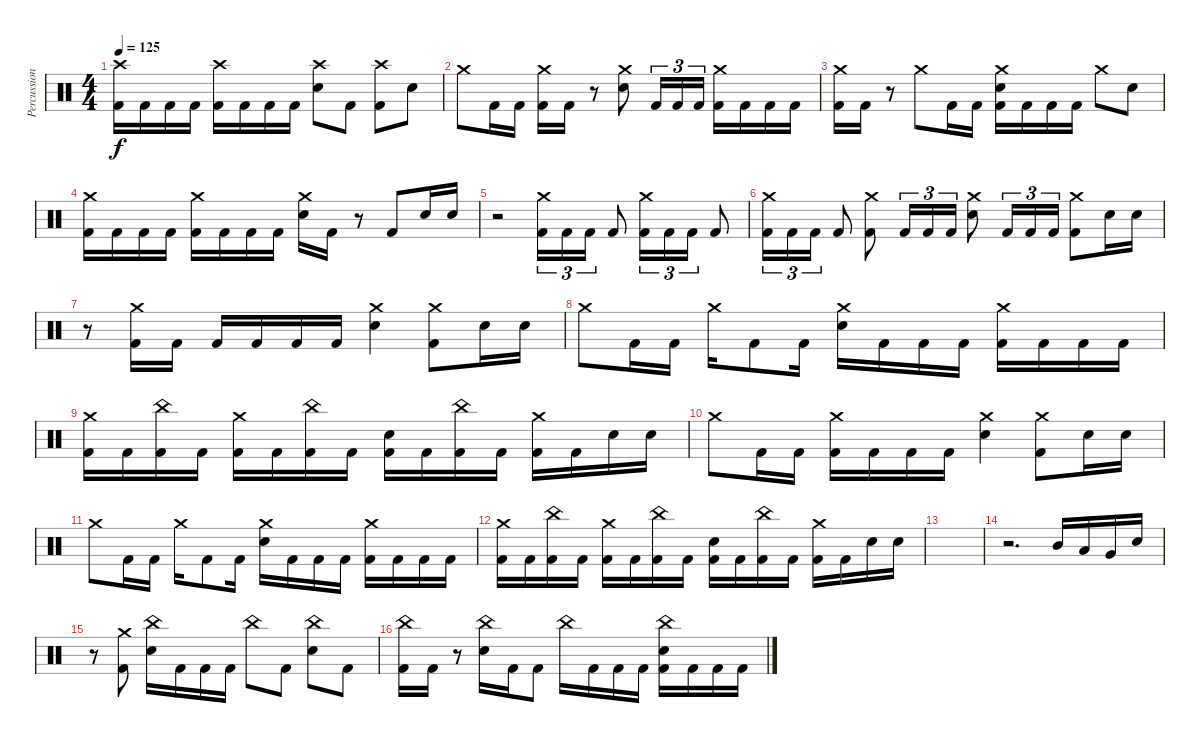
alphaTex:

\track ("Percussion" "Percussion") {instrument percussion}
\staff {score}
\articulation defaults
\ts (4 4)
\tempo 125
\clef neutral
\ks c
("Crash high (hit)" "Kick (hit) 2").16{dy f} "Kick (hit) 2".16 "Kick (hit) 2".16 "Kick (hit) 2".16 ("Crash high (hit)" "Kick (hit) 2").16 "Kick (hit) 2".16 "Kick (hit) 2".16 "Kick (hit) 2".16 ("Crash high (hit)" "Electric Snare (hit)").8 "Kick (hit) 2".8 ("Crash high (hit)" "Kick (hit) 2").8 "Electric Snare (hit)".8 |
"Crash medium (hit)".8 "Kick (hit) 2".16 "Kick (hit) 2".16 ("Crash medium (hit)" "Kick (hit) 2").16 "Kick (hit) 2".16 r.8 ("Crash medium (hit)" "Electric Snare (hit)").8 "Kick (hit) 2".16{tu (3 2)} "Kick (hit) 2".16{tu (3 2)} "Kick (hit) 2".16{tu (3 2)} ("Crash medium (hit)" "Kick (hit) 2").16 "Kick (hit) 2".16 "Kick (hit) 2".16 "Kick (hit) 2".16 |
("Crash medium (hit)" "Kick (hit) 2").16 "Kick (hit) 2".16 r.8 "Crash medium (hit)".8 "Kick (hit) 2".16 "Kick (hit) 2".16 ("Crash medium (hit)" "Electric Snare (hit)" "Kick (hit) 2").16 "Kick (hit) 2".16 "Kick (hit) 2".16 "Kick (hit) 2".16 "Crash medium (hit)".8 "Electric Snare (hit)".8 |
("Crash medium (hit)" "Kick (hit) 2").16 "Kick (hit) 2".16 "Kick (hit) 2".16 "Kick (hit) 2".16 ("Crash medium (hit)" "Kick (hit) 2").16 "Kick (hit) 2".16 "Kick (hit) 2".16 "Kick (hit) 2".16 ("Crash medium (hit)" "Electric Snare (hit)").16 "Kick (hit) 2".16 r.8 "Kick (hit) 2".8 "Electric Snare (hit)".16 "Electric Snare (hit)".16 |
r.2 ("Crash medium (hit)" "Kick (hit) 2").16{tu (3 2)} "Kick (hit) 2".16{tu (3 2)} "Kick (hit) 2".16{tu (3 2)} "Kick (hit) 2".8 ("Crash medium (hit)" "Kick (hit) 2").16{tu (3 2)} "Kick (hit) 2".16{tu (3 2)} "Kick (hit) 2".16{tu (3 2)} "Kick (hit) 2".8 |
("Crash medium (hit)" "Kick (hit) 2").16{tu (3 2)} "Kick (hit) 2".16{tu (3 2)} "Kick (hit) 2".16{tu (3 2)} "Kick (hit) 2".8 ("Crash medium (hit)" "Kick (hit) 2").8 "Kick (hit) 2".16{tu (3 2)} "Kick (hit) 2".16{tu (3 2)} "Kick (hit) 2".16{tu (3 2)} ("Crash medium (hit)" "Electric Snare (hit)").8 "Kick (hit) 2".16{tu (3 2)} "Kick (hit) 2".16{tu (3 2)} "Kick (hit) 2".16{tu (3 2)} ("Crash medium (hit)" "Kick (hit) 2").8 "Electric Snare (hit)".16 "Electric Snare (hit)".16 |
r.8 ("Crash medium (hit)" "Kick (hit) 2").16 "Kick (hit) 2".16 "Kick (hit) 2".16 "Kick (hit) 2".16 "Kick (hit) 2".16 "Kick (hit) 2".16 ("Crash medium (hit)" "Electric Snare (hit)").4 ("Crash medium (hit)" "Kick (hit) 2").8 "Electric Snare (hit)".16 "Electric Snare (hit)".16 |
"Crash medium (hit)".8 "Kick (hit) 2".16 "Kick (hit) 2".16 "Crash medium (hit)".16 "Kick (hit) 2".8 "Kick (hit) 2".16 ("Crash medium (hit)" "Electric Snare (hit)").16 "Kick (hit) 2".16 "Kick (hit) 2".16 "Kick (hit) 2".16 ("Crash medium (hit)" "Kick (hit) 2").16 "Kick (hit) 2".16 "Kick (hit) 2".16 "Kick (hit) 2".16 |
("Crash medium (hit)" "Kick (hit) 2").16 "Kick (hit) 2".16 ("China (hit)" "Kick (hit) 2").16 "Kick (hit) 2".16 ("Crash medium (hit)" "Kick (hit) 2").16 "Kick (hit) 2".16 ("China (hit)" "Kick (hit) 2").16 "Kick (hit) 2".16 ("Electric Snare (hit)" "Kick (hit) 2").16 "Kick (hit) 2".16 ("China (hit)" "Kick (hit) 2").16 "Kick (hit) 2".16 ("Crash medium (hit)" "Kick (hit) 2").16 "Kick (hit) 2".16 "Electric Snare (hit)".16 "Electric Snare (hit)".16 |
"Crash medium (hit)".8 "Kick (hit) 2".16 "Kick (hit) 2".16 ("Crash medium (hit)" "Kick (hit) 2").16 "Kick (hit) 2".16 "Kick (hit) 2".16 "Kick (hit) 2".16 ("Crash medium (hit)" "Electric Snare (hit)").4 ("Crash medium (hit)" "Kick (hit) 2").8 "Electric Snare (hit)".16 "Electric Snare (hit)".16 |
"Crash medium (hit)".8 "Kick (hit) 2".16 "Kick (hit) 2".16 "Crash medium (hit)".16 "Kick (hit) 2".8 "Kick (hit) 2".16 ("Crash medium (hit)" "Electric Snare (hit)").16 "Kick (hit) 2".16 "Kick (hit) 2".16 "Kick (hit) 2".16 ("Crash medium (hit)" "Kick (hit) 2").16 "Kick (hit) 2".16 "Kick (hit) 2".16 "Kick (hit) 2".16 |
("Crash medium (hit)" "Kick (hit) 2").16 "Kick (hit) 2".16 ("China (hit)" "Kick (hit) 2").16 "Kick (hit) 2".16 ("Crash medium (hit)" "Kick (hit) 2").16 "Kick (hit) 2".16 ("China (hit)" "Kick (hit) 2").16 "Kick (hit) 2".16 ("Electric Snare (hit)" "Kick (hit) 2").16 "Kick (hit) 2".16 ("China (hit)" "Kick (hit) 2").16 "Kick (hit) 2".16 ("Crash medium (hit)" "Kick (hit) 2").16 "Kick (hit) 2".16 "Electric Snare (hit)".16 "Electric Snare (hit)".16 |
|
r.2{d} "Mid Tom (hit)".16 "Low Tom (hit)".16 "Very Low Tom (hit)".16 "Electric Snare (hit)".16 |
r.8 ("Crash medium (hit)" "Kick (hit) 2").8 ("China (hit)" "Electric Snare (hit)").16 "Kick (hit) 2".16 "Kick (hit) 2".16 "Kick (hit) 2".16 "China (hit)".8 "Kick (hit) 2".8 ("China (hit)" "Electric Snare (hit)").8 "Kick (hit) 2".8 |
("China (hit)" "Kick (hit) 2").16 "Kick (hit) 2".16 r.8 ("China (hit)" "Electric Snare (hit)").16 "Kick (hit) 2".16 "Kick (hit) 2".8 "China (hit)".16 "Kick (hit) 2".16 "Kick (hit) 2".16 "Kick (hit) 2".16 ("China (hit)" "Electric Snare (hit)" "Kick (hit) 2").16 "Kick (hit) 2".16 "Kick (hit) 2".16 "Kick (hit) 2".16
